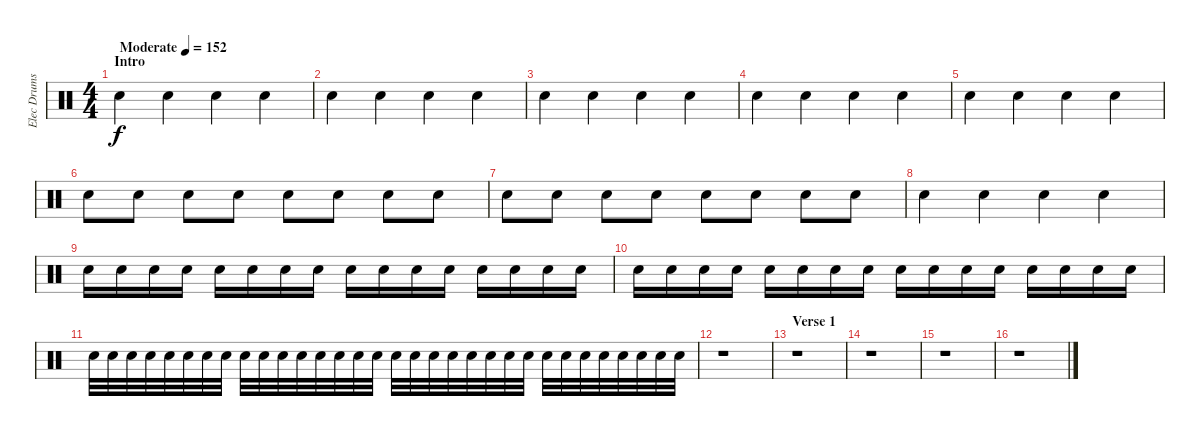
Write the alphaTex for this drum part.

\track ("Elec Drums" "Elec Drums") {instrument percussion}
\staff {score}
\articulation defaults
\ts (4 4)
\section ("" "Intro")
\tempo (152 "Moderate")
\clef neutral
\ks c "Electric Snare (hit)".4{dy f} "Electric Snare (hit)".4 "Electric Snare (hit)".4 "Electric Snare (hit)".4
|
"Electric Snare (hit)".4 "Electric Snare (hit)".4 "Electric Snare (hit)".4 "Electric Snare (hit)".4 |
"Electric Snare (hit)".4 "Electric Snare (hit)".4 "Electric Snare (hit)".4 "Electric Snare (hit)".4 |
"Electric Snare (hit)".4 "Electric Snare (hit)".4 "Electric Snare (hit)".4 "Electric Snare (hit)".4 |
"Electric Snare (hit)".4 "Electric Snare (hit)".4 "Electric Snare (hit)".4 "Electric Snare (hit)".4 |
"Electric Snare (hit)".8 "Electric Snare (hit)".8 "Electric Snare (hit)".8 "Electric Snare (hit)".8 "Electric Snare (hit)".8 "Electric Snare (hit)".8 "Electric Snare (hit)".8 "Electric Snare (hit)".8 |
"Electric Snare (hit)".8 "Electric Snare (hit)".8 "Electric Snare (hit)".8 "Electric Snare (hit)".8 "Electric Snare (hit)".8 "Electric Snare (hit)".8 "Electric Snare (hit)".8 "Electric Snare (hit)".8 |
"Electric Snare (hit)".4 "Electric Snare (hit)".4 "Electric Snare (hit)".4 "Electric Snare (hit)".4 |
"Electric Snare (hit)".16 "Electric Snare (hit)".16 "Electric Snare (hit)".16 "Electric Snare (hit)".16 "Electric Snare (hit)".16 "Electric Snare (hit)".16 "Electric Snare (hit)".16 "Electric Snare (hit)".16 "Electric Snare (hit)".16 "Electric Snare (hit)".16 "Electric Snare (hit)".16 "Electric Snare (hit)".16 "Electric Snare (hit)".16 "Electric Snare (hit)".16 "Electric Snare (hit)".16 "Electric Snare (hit)".16 |
"Electric Snare (hit)".16 "Electric Snare (hit)".16 "Electric Snare (hit)".16 "Electric Snare (hit)".16 "Electric Snare (hit)".16 "Electric Snare (hit)".16 "Electric Snare (hit)".16 "Electric Snare (hit)".16 "Electric Snare (hit)".16 "Electric Snare (hit)".16 "Electric Snare (hit)".16 "Electric Snare (hit)".16 "Electric Snare (hit)".16 "Electric Snare (hit)".16 "Electric Snare (hit)".16 "Electric Snare (hit)".16 |
"Electric Snare (hit)".32 "Electric Snare (hit)".32 "Electric Snare (hit)".32 "Electric Snare (hit)".32 "Electric Snare (hit)".32 "Electric Snare (hit)".32 "Electric Snare (hit)".32 "Electric Snare (hit)".32 "Electric Snare (hit)".32 "Electric Snare (hit)".32 "Electric Snare (hit)".32 "Electric Snare (hit)".32 "Electric Snare (hit)".32 "Electric Snare (hit)".32 "Electric Snare (hit)".32 "Electric Snare (hit)".32 "Electric Snare (hit)".32 "Electric Snare (hit)".32 "Electric Snare (hit)".32 "Electric Snare (hit)".32 "Electric Snare (hit)".32 "Electric Snare (hit)".32 "Electric Snare (hit)".32 "Electric Snare (hit)".32 "Electric Snare (hit)".32 "Electric Snare (hit)".32 "Electric Snare (hit)".32 "Electric Snare (hit)".32 "Electric Snare (hit)".32 "Electric Snare (hit)".32 "Electric Snare (hit)".32 "Electric Snare (hit)".32 |
r.1 |
\section ("" "Verse 1")
r.1 |
r.1 |
r.1 |
r.1
